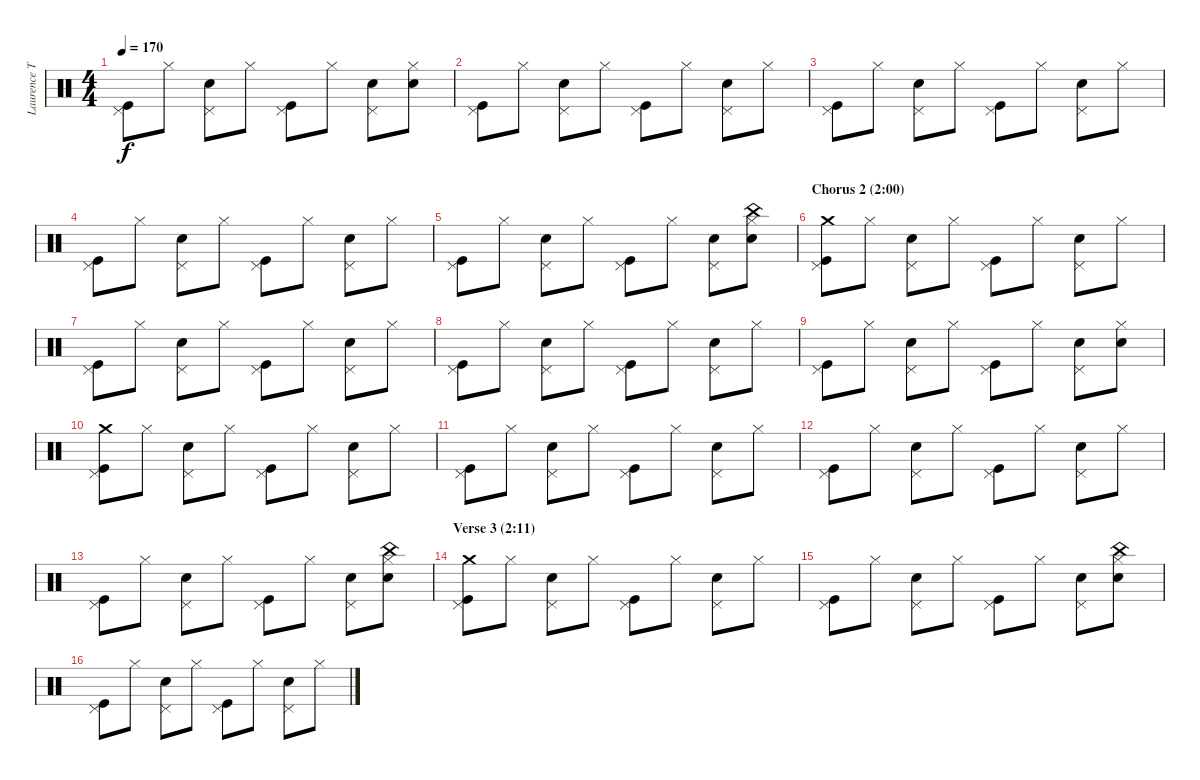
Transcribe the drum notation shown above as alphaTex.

\track ("Laurence Tolhurst (drums)" "Laurence T") {instrument percussion}
\staff {score}
\articulation defaults
\ts (4 4)
\tempo 170
\clef neutral
\ks c
("Pedal Hi-Hat (hit)" "Kick (hit)").8{dy f} "Hi-Hat (closed)".8 ("Pedal Hi-Hat (hit)" "Snare (hit) 2").8 "Hi-Hat (closed)".8 ("Pedal Hi-Hat (hit)" "Kick (hit)").8 "Hi-Hat (closed)".8 ("Pedal Hi-Hat (hit)" "Snare (hit) 2").8 ("Hi-Hat (closed)" "Snare (hit) 2").8 |
("Pedal Hi-Hat (hit)" "Kick (hit)").8 "Hi-Hat (closed)".8 ("Pedal Hi-Hat (hit)" "Snare (hit) 2").8 "Hi-Hat (closed)".8 ("Pedal Hi-Hat (hit)" "Kick (hit)").8 "Hi-Hat (closed)".8 ("Pedal Hi-Hat (hit)" "Snare (hit) 2").8 "Hi-Hat (closed)".8 |
("Pedal Hi-Hat (hit)" "Kick (hit)").8 "Hi-Hat (closed)".8 ("Pedal Hi-Hat (hit)" "Snare (hit) 2").8 "Hi-Hat (closed)".8 ("Pedal Hi-Hat (hit)" "Kick (hit)").8 "Hi-Hat (closed)".8 ("Pedal Hi-Hat (hit)" "Snare (hit) 2").8 "Hi-Hat (closed)".8 |
("Pedal Hi-Hat (hit)" "Kick (hit)").8 "Hi-Hat (closed)".8 ("Pedal Hi-Hat (hit)" "Snare (hit) 2").8 "Hi-Hat (closed)".8 ("Pedal Hi-Hat (hit)" "Kick (hit)").8 "Hi-Hat (closed)".8 ("Pedal Hi-Hat (hit)" "Snare (hit) 2").8 "Hi-Hat (closed)".8 |
("Pedal Hi-Hat (hit)" "Kick (hit)").8 "Hi-Hat (closed)".8 ("Pedal Hi-Hat (hit)" "Snare (hit) 2").8 "Hi-Hat (closed)".8 ("Pedal Hi-Hat (hit)" "Kick (hit)").8 "Hi-Hat (closed)".8 ("Pedal Hi-Hat (hit)" "Snare (hit) 2").8 ("China (hit)" "Hi-Hat (closed)" "Snare (hit) 2").8 |
\section ("" "Chorus 2 (2:00)")
("Crash medium (hit)" "Pedal Hi-Hat (hit)" "Kick (hit)").8 "Hi-Hat (closed)".8 ("Pedal Hi-Hat (hit)" "Snare (hit) 2").8 "Hi-Hat (closed)".8 ("Pedal Hi-Hat (hit)" "Kick (hit)").8 "Hi-Hat (closed)".8 ("Pedal Hi-Hat (hit)" "Snare (hit) 2").8 "Hi-Hat (closed)".8 |
("Pedal Hi-Hat (hit)" "Kick (hit)").8 "Hi-Hat (closed)".8 ("Pedal Hi-Hat (hit)" "Snare (hit) 2").8 "Hi-Hat (closed)".8 ("Pedal Hi-Hat (hit)" "Kick (hit)").8 "Hi-Hat (closed)".8 ("Pedal Hi-Hat (hit)" "Snare (hit) 2").8 "Hi-Hat (closed)".8 |
("Pedal Hi-Hat (hit)" "Kick (hit)").8 "Hi-Hat (closed)".8 ("Pedal Hi-Hat (hit)" "Snare (hit) 2").8 "Hi-Hat (closed)".8 ("Pedal Hi-Hat (hit)" "Kick (hit)").8 "Hi-Hat (closed)".8 ("Pedal Hi-Hat (hit)" "Snare (hit) 2").8 "Hi-Hat (closed)".8 |
("Pedal Hi-Hat (hit)" "Kick (hit)").8 "Hi-Hat (closed)".8 ("Pedal Hi-Hat (hit)" "Snare (hit) 2").8 "Hi-Hat (closed)".8 ("Pedal Hi-Hat (hit)" "Kick (hit)").8 "Hi-Hat (closed)".8 ("Pedal Hi-Hat (hit)" "Snare (hit) 2").8 ("Hi-Hat (closed)" "Snare (hit) 2").8 |
("Crash medium (hit)" "Pedal Hi-Hat (hit)" "Kick (hit)").8 "Hi-Hat (closed)".8 ("Pedal Hi-Hat (hit)" "Snare (hit) 2").8 "Hi-Hat (closed)".8 ("Pedal Hi-Hat (hit)" "Kick (hit)").8 "Hi-Hat (closed)".8 ("Pedal Hi-Hat (hit)" "Snare (hit) 2").8 "Hi-Hat (closed)".8 |
("Pedal Hi-Hat (hit)" "Kick (hit)").8 "Hi-Hat (closed)".8 ("Pedal Hi-Hat (hit)" "Snare (hit) 2").8 "Hi-Hat (closed)".8 ("Pedal Hi-Hat (hit)" "Kick (hit)").8 "Hi-Hat (closed)".8 ("Pedal Hi-Hat (hit)" "Snare (hit) 2").8 "Hi-Hat (closed)".8 |
("Pedal Hi-Hat (hit)" "Kick (hit)").8 "Hi-Hat (closed)".8 ("Pedal Hi-Hat (hit)" "Snare (hit) 2").8 "Hi-Hat (closed)".8 ("Pedal Hi-Hat (hit)" "Kick (hit)").8 "Hi-Hat (closed)".8 ("Pedal Hi-Hat (hit)" "Snare (hit) 2").8 "Hi-Hat (closed)".8 |
("Pedal Hi-Hat (hit)" "Kick (hit)").8 "Hi-Hat (closed)".8 ("Pedal Hi-Hat (hit)" "Snare (hit) 2").8 "Hi-Hat (closed)".8 ("Pedal Hi-Hat (hit)" "Kick (hit)").8 "Hi-Hat (closed)".8 ("Pedal Hi-Hat (hit)" "Snare (hit) 2").8 ("China (hit)" "Hi-Hat (closed)" "Snare (hit) 2").8 |
\section ("" "Verse 3 (2:11)")
("Crash medium (hit)" "Pedal Hi-Hat (hit)" "Kick (hit)").8 "Hi-Hat (closed)".8 ("Pedal Hi-Hat (hit)" "Snare (hit) 2").8 "Hi-Hat (closed)".8 ("Pedal Hi-Hat (hit)" "Kick (hit)").8 "Hi-Hat (closed)".8 ("Pedal Hi-Hat (hit)" "Snare (hit) 2").8 "Hi-Hat (closed)".8 |
("Pedal Hi-Hat (hit)" "Kick (hit)").8 "Hi-Hat (closed)".8 ("Pedal Hi-Hat (hit)" "Snare (hit) 2").8 "Hi-Hat (closed)".8 ("Pedal Hi-Hat (hit)" "Kick (hit)").8 "Hi-Hat (closed)".8 ("Pedal Hi-Hat (hit)" "Snare (hit) 2").8 ("China (hit)" "Hi-Hat (closed)" "Snare (hit) 2").8 |
("Pedal Hi-Hat (hit)" "Kick (hit)").8 "Hi-Hat (closed)".8 ("Pedal Hi-Hat (hit)" "Snare (hit) 2").8 "Hi-Hat (closed)".8 ("Pedal Hi-Hat (hit)" "Kick (hit)").8 "Hi-Hat (closed)".8 ("Pedal Hi-Hat (hit)" "Snare (hit) 2").8 "Hi-Hat (closed)".8
